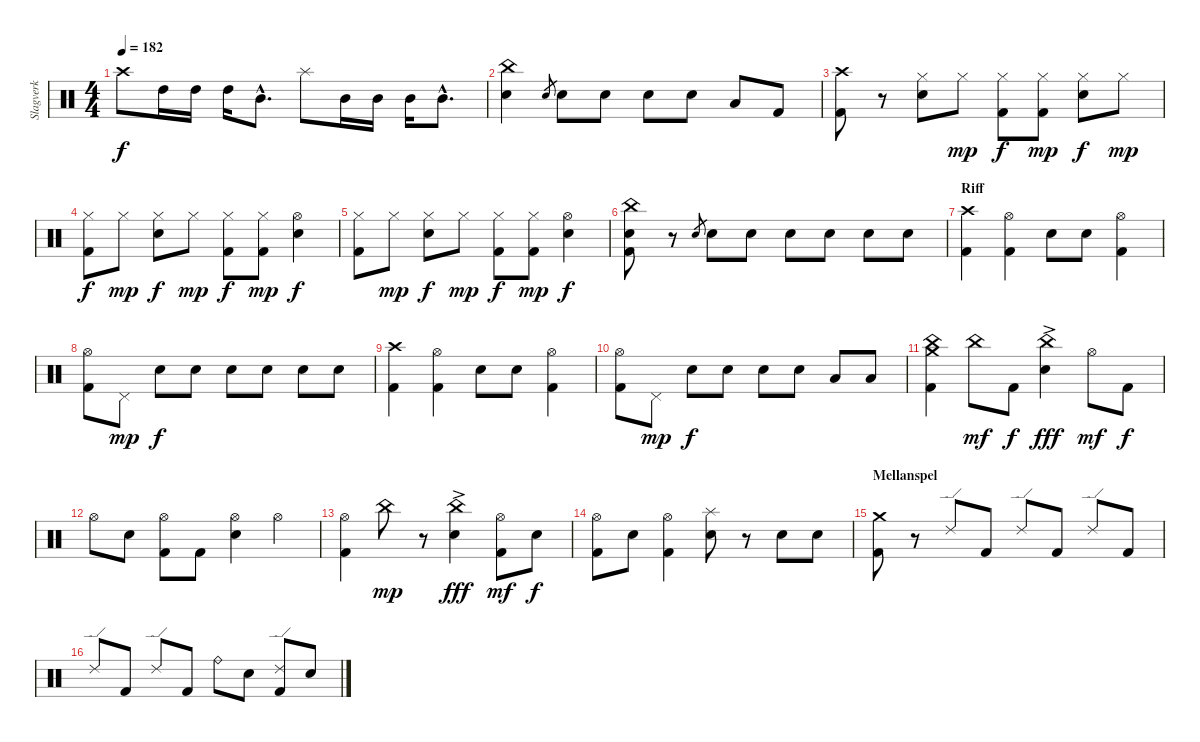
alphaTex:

\track ("Slagverk" "Slagverk") {instrument percussion}
\staff {score}
\articulation defaults
\ts (4 4)
\tempo 182
\clef neutral
\ks c "Crash high (hit)".8{dy f} "High Tom (hit)".16 "High Tom (hit)".16 "High Tom (hit)".16 "Mid Tom (hit)"{hac}.8{d} "Splash (hit)".8 "Mid Tom (hit)".16 "Mid Tom (hit)".16 "Mid Tom (hit)".16 "Mid Tom (hit)"{hac}.8{d}
|
("China (hit)" "Electric Snare (hit)").4 "Electric Snare (hit)".8{gr} "Electric Snare (hit)".8 "Electric Snare (hit)".8 "Electric Snare (hit)".8 "Electric Snare (hit)".8 "Low Floor Tom (hit)".8 "Kick (hit) 2".8 |
("Crash high (hit)" "Kick (hit) 2").8 r.8 ("Hi-Hat (closed)" "Electric Snare (hit)").8 "Hi-Hat (closed)".8{dy mp} ("Hi-Hat (closed)" "Kick (hit) 2").8{dy f} ("Hi-Hat (closed)" "Kick (hit) 2").8{dy mp} ("Hi-Hat (closed)" "Electric Snare (hit)").8{dy f} "Hi-Hat (closed)".8{dy mp} |
("Hi-Hat (closed)" "Kick (hit) 2").8{dy f} "Hi-Hat (closed)".8{dy mp} ("Hi-Hat (closed)" "Electric Snare (hit)").8{dy f} "Hi-Hat (closed)".8{dy mp} ("Hi-Hat (closed)" "Kick (hit) 2").8{dy f} ("Hi-Hat (closed)" "Kick (hit) 2").8{dy mp} ("Hi-Hat (open)" "Electric Snare (hit)").4{dy f} |
("Hi-Hat (closed)" "Kick (hit) 2").8 "Hi-Hat (closed)".8{dy mp} ("Hi-Hat (closed)" "Electric Snare (hit)").8{dy f} "Hi-Hat (closed)".8{dy mp} ("Hi-Hat (closed)" "Kick (hit) 2").8{dy f} ("Hi-Hat (closed)" "Kick (hit) 2").8{dy mp} ("Hi-Hat (open)" "Electric Snare (hit)").4{dy f} |
("China (hit)" "Electric Snare (hit)" "Kick (hit) 2").8 r.8 "Electric Snare (hit)".8{gr} "Electric Snare (hit)".8 "Electric Snare (hit)".8 "Electric Snare (hit)".8 "Electric Snare (hit)".8 "Electric Snare (hit)".8 "Electric Snare (hit)".8 |
\section ("" "Riff")
("Crash high (hit)" "Kick (hit) 2").4 ("Hi-Hat (open)" "Kick (hit) 2").4 "Electric Snare (hit)".8 "Electric Snare (hit)".8 ("Hi-Hat (open)" "Kick (hit) 2").4 |
("Hi-Hat (open)" "Kick (hit) 2").8 "Pedal Hi-Hat (hit)".8{dy mp} "Electric Snare (hit)".8{dy f} "Electric Snare (hit)".8 "Electric Snare (hit)".8 "Electric Snare (hit)".8 "Electric Snare (hit)".8 "Electric Snare (hit)".8 |
("Crash high (hit)" "Kick (hit) 2").4 ("Hi-Hat (open)" "Kick (hit) 2").4 "Electric Snare (hit)".8 "Electric Snare (hit)".8 ("Hi-Hat (open)" "Kick (hit) 2").4 |
("Hi-Hat (open)" "Kick (hit) 2").8 "Pedal Hi-Hat (hit)".8{dy mp} "Electric Snare (hit)".8{dy f} "Electric Snare (hit)".8 "Electric Snare (hit)".8 "Electric Snare (hit)".8 "Low Floor Tom (hit)".8 "Low Floor Tom (hit)".8 |
("China (hit)" "Crash medium (hit)" "Kick (hit) 2").4 "China (hit)".8{dy mf} "Kick (hit) 2".8{dy f} ("China (hit)" "Electric Snare (hit)"{ac}).4{dy fff} "Hi-Hat (open)".8{dy mf} "Kick (hit) 2".8{dy f} |
"Hi-Hat (open)".8 "Electric Snare (hit)".8 ("Hi-Hat (open)" "Kick (hit) 2").8 "Kick (hit) 2".8 ("Hi-Hat (open)" "Electric Snare (hit)").4 "Hi-Hat (open)".4 |
("Hi-Hat (open)" "Kick (hit) 2").4 "China (hit)".8{dy mp} r.8 ("China (hit)" "Electric Snare (hit)"{ac}).4{dy fff} ("Hi-Hat (open)" "Kick (hit) 2").8{dy mf} "Electric Snare (hit)".8{dy f} |
("Hi-Hat (open)" "Kick (hit) 2").8 "Electric Snare (hit)".8 ("Hi-Hat (open)" "Kick (hit) 2").4 ("Splash (hit)" "Electric Snare (hit)").8 r.8 "Electric Snare (hit)".8 "Electric Snare (hit)".8 |
\section ("" "Mellanspel")
("Crash medium (hit)" "Kick (hit) 2").8 r.8 "Ride (edge) 2".8 "Kick (hit) 2".8 "Ride (edge) 2".8 "Kick (hit) 2".8 "Ride (edge) 2".8 "Kick (hit) 2".8 |
"Ride (edge) 2".8 "Kick (hit) 2".8 "Ride (edge) 2".8 "Kick (hit) 2".8 "Ride (bell)".8 "Electric Snare (hit)".8 ("Ride (edge) 2" "Kick (hit) 2").8 "Electric Snare (hit)".8
